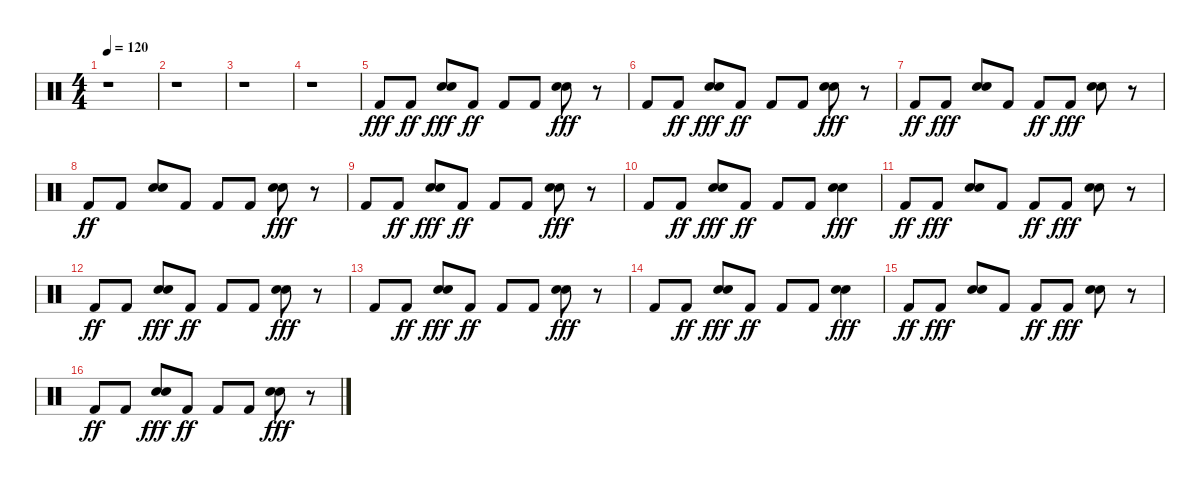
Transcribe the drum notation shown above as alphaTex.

\track "" {instrument percussion}
\staff {score}
\articulation defaults
\ts (4 4)
\tempo 120
\clef neutral
\ks c
r.1{dy fff} |
r.1 |
r.1 |
r.1 |
"Kick (hit) 2".8 "Kick (hit) 2".8{dy ff} ("Electric Snare (hit)" "Snare (hit) 2").8{dy fff} "Kick (hit) 2".8{dy ff} "Kick (hit) 2".8 "Kick (hit) 2".8 ("Electric Snare (hit)" "Snare (hit) 2").8{dy fff} r.8 |
"Kick (hit) 2".8 "Kick (hit) 2".8{dy ff} ("Electric Snare (hit)" "Snare (hit) 2").8{dy fff} "Kick (hit) 2".8{dy ff} "Kick (hit) 2".8 "Kick (hit) 2".8 ("Snare (hit) 2" "Electric Snare (hit)").8{dy fff} r.8 |
"Kick (hit) 2".8{dy ff} "Kick (hit) 2".8{dy fff} ("Electric Snare (hit)" "Snare (hit) 2").8 "Kick (hit) 2".8 "Kick (hit) 2".8{dy ff} "Kick (hit) 2".8{dy fff} ("Snare (hit) 2" "Electric Snare (hit)").8 r.8 |
"Kick (hit) 2".8{dy ff} "Kick (hit) 2".8 ("Snare (hit) 2" "Electric Snare (hit)").8 "Kick (hit) 2".8 "Kick (hit) 2".8 "Kick (hit) 2".8 ("Electric Snare (hit)" "Snare (hit) 2").8{dy fff} r.8 |
"Kick (hit) 2".8 "Kick (hit) 2".8{dy ff} ("Electric Snare (hit)" "Snare (hit) 2").8{dy fff} "Kick (hit) 2".8{dy ff} "Kick (hit) 2".8 "Kick (hit) 2".8 ("Electric Snare (hit)" "Snare (hit) 2").8{dy fff} r.8 |
"Kick (hit) 2".8 "Kick (hit) 2".8{dy ff} ("Electric Snare (hit)" "Snare (hit) 2").8{dy fff} "Kick (hit) 2".8{dy ff} "Kick (hit) 2".8 "Kick (hit) 2".8 ("Electric Snare (hit)" "Snare (hit) 2").4{dy fff} |
"Kick (hit) 2".8{dy ff} "Kick (hit) 2".8{dy fff} ("Snare (hit) 2" "Electric Snare (hit)").8 "Kick (hit) 2".8 "Kick (hit) 2".8{dy ff} "Kick (hit) 2".8{dy fff} ("Snare (hit) 2" "Electric Snare (hit)").8 r.8 |
"Kick (hit) 2".8{dy ff} "Kick (hit) 2".8 ("Electric Snare (hit)" "Snare (hit) 2").8{dy fff} "Kick (hit) 2".8{dy ff} "Kick (hit) 2".8 "Kick (hit) 2".8 ("Snare (hit) 2" "Electric Snare (hit)").8{dy fff} r.8 |
"Kick (hit) 2".8 "Kick (hit) 2".8{dy ff} ("Electric Snare (hit)" "Snare (hit) 2").8{dy fff} "Kick (hit) 2".8{dy ff} "Kick (hit) 2".8 "Kick (hit) 2".8 ("Electric Snare (hit)" "Snare (hit) 2").8{dy fff} r.8 |
"Kick (hit) 2".8 "Kick (hit) 2".8{dy ff} ("Electric Snare (hit)" "Snare (hit) 2").8{dy fff} "Kick (hit) 2".8{dy ff} "Kick (hit) 2".8 "Kick (hit) 2".8 ("Electric Snare (hit)" "Snare (hit) 2").4{dy fff} |
"Kick (hit) 2".8{dy ff} "Kick (hit) 2".8{dy fff} ("Snare (hit) 2" "Electric Snare (hit)").8 "Kick (hit) 2".8 "Kick (hit) 2".8{dy ff} "Kick (hit) 2".8{dy fff} ("Snare (hit) 2" "Electric Snare (hit)").8 r.8 |
"Kick (hit) 2".8{dy ff} "Kick (hit) 2".8 ("Electric Snare (hit)" "Snare (hit) 2").8{dy fff} "Kick (hit) 2".8{dy ff} "Kick (hit) 2".8 "Kick (hit) 2".8 ("Snare (hit) 2" "Electric Snare (hit)").8{dy fff} r.8
